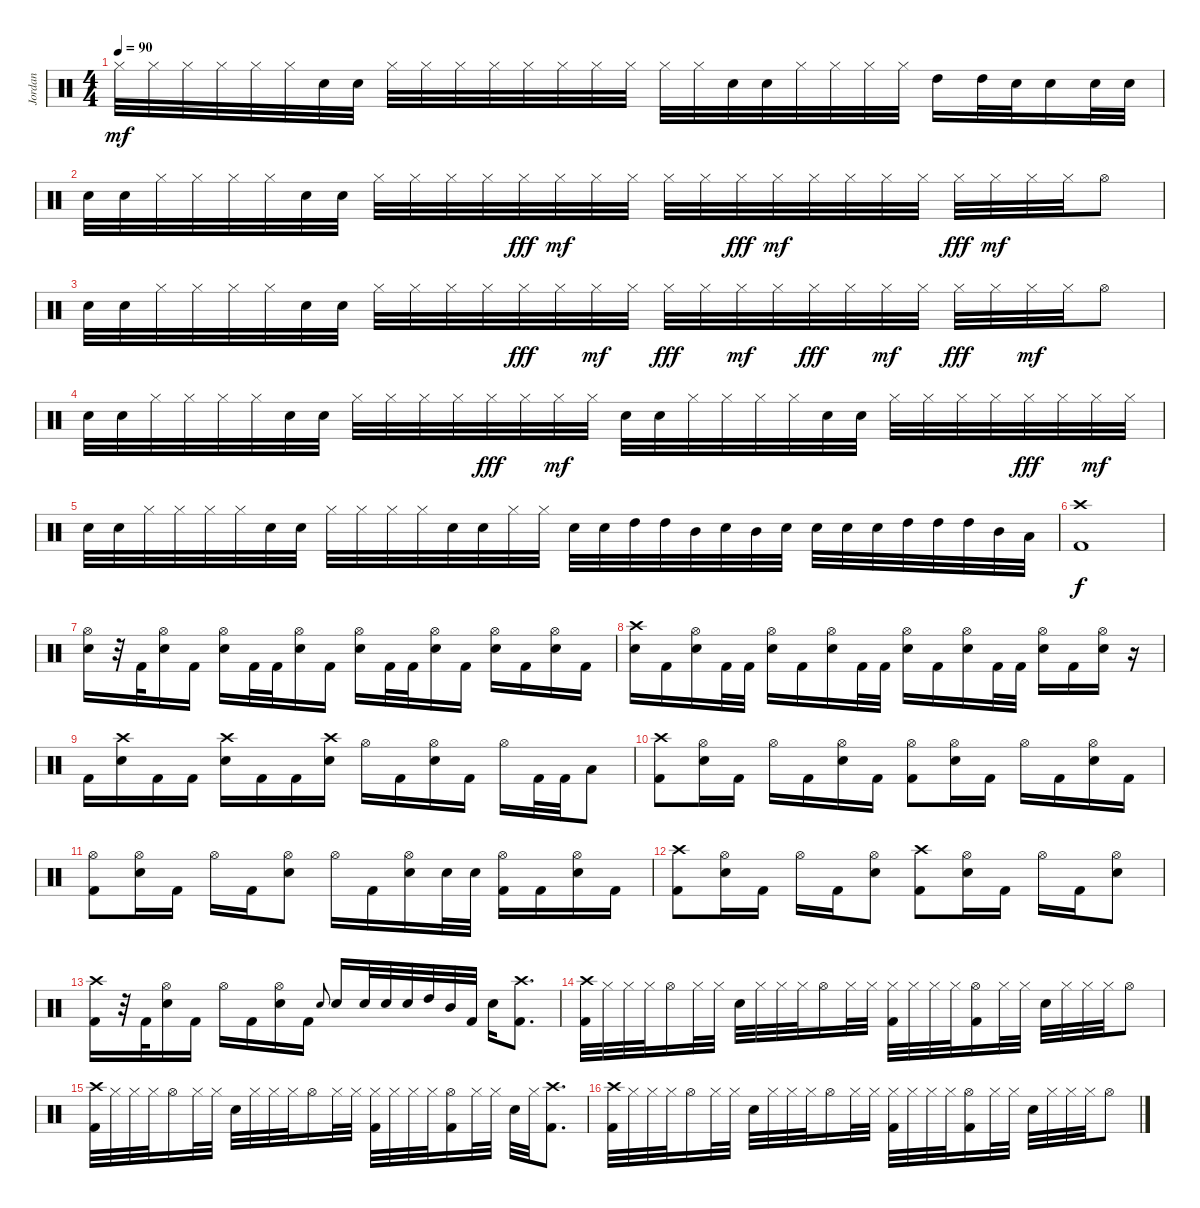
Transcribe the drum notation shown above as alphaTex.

\track ("Jordan" "Jordan") {instrument percussion}
\staff {score}
\articulation defaults
\ts (4 4)
\tempo 90
\clef neutral
\ks c "Hi-Hat (closed)".32{dy mf} "Hi-Hat (closed)".32 "Hi-Hat (closed)".32 "Hi-Hat (closed)".32 "Hi-Hat (closed)".32 "Hi-Hat (closed)".32 "Snare (hit) 2".32 "Snare (hit) 2".32 "Hi-Hat (closed)".32 "Hi-Hat (closed)".32 "Hi-Hat (closed)".32 "Hi-Hat (closed)".32 "Hi-Hat (closed)".32 "Hi-Hat (closed)".32 "Hi-Hat (closed)".32 "Hi-Hat (closed)".32 "Hi-Hat (closed)".32 "Hi-Hat (closed)".32 "Snare (hit) 2".32 "Snare (hit) 2".32 "Hi-Hat (closed)".32 "Hi-Hat (closed)".32 "Hi-Hat (closed)".32 "Hi-Hat (closed)".32 "High Tom (hit)".16 "High Tom (hit)".32 "Snare (hit) 2".32 "Snare (hit) 2".16 "Snare (hit) 2".32 "Snare (hit) 2".32
|
"Snare (hit) 2".32 "Snare (hit) 2".32 "Hi-Hat (closed)".32 "Hi-Hat (closed)".32 "Hi-Hat (closed)".32 "Hi-Hat (closed)".32 "Snare (hit) 2".32 "Snare (hit) 2".32 "Hi-Hat (closed)".32 "Hi-Hat (closed)".32 "Hi-Hat (closed)".32 "Hi-Hat (closed)".32 "Hi-Hat (closed)".32{dy fff} "Hi-Hat (closed)".32{dy mf} "Hi-Hat (closed)".32 "Hi-Hat (closed)".32 "Hi-Hat (closed)".32 "Hi-Hat (closed)".32 "Hi-Hat (closed)".32{dy fff} "Hi-Hat (closed)".32{dy mf} "Hi-Hat (closed)".32 "Hi-Hat (closed)".32 "Hi-Hat (closed)".32 "Hi-Hat (closed)".32 "Hi-Hat (closed)".32{dy fff} "Hi-Hat (closed)".32{dy mf} "Hi-Hat (closed)".32 "Hi-Hat (closed)".32 "Hi-Hat (open)".8 |
"Snare (hit) 2".32 "Snare (hit) 2".32 "Hi-Hat (closed)".32 "Hi-Hat (closed)".32 "Hi-Hat (closed)".32 "Hi-Hat (closed)".32 "Snare (hit) 2".32 "Snare (hit) 2".32 "Hi-Hat (closed)".32 "Hi-Hat (closed)".32 "Hi-Hat (closed)".32 "Hi-Hat (closed)".32 "Hi-Hat (closed)".32{dy fff} "Hi-Hat (closed)".32 "Hi-Hat (closed)".32{dy mf} "Hi-Hat (closed)".32 "Hi-Hat (closed)".32{dy fff} "Hi-Hat (closed)".32 "Hi-Hat (closed)".32{dy mf} "Hi-Hat (closed)".32 "Hi-Hat (closed)".32{dy fff} "Hi-Hat (closed)".32 "Hi-Hat (closed)".32{dy mf} "Hi-Hat (closed)".32 "Hi-Hat (closed)".32{dy fff} "Hi-Hat (closed)".32 "Hi-Hat (closed)".32{dy mf} "Hi-Hat (closed)".32 "Hi-Hat (open)".8 |
"Snare (hit) 2".32 "Snare (hit) 2".32 "Hi-Hat (closed)".32 "Hi-Hat (closed)".32 "Hi-Hat (closed)".32 "Hi-Hat (closed)".32 "Snare (hit) 2".32 "Snare (hit) 2".32 "Hi-Hat (closed)".32 "Hi-Hat (closed)".32 "Hi-Hat (closed)".32 "Hi-Hat (closed)".32 "Hi-Hat (closed)".32{dy fff} "Hi-Hat (closed)".32 "Hi-Hat (closed)".32{dy mf} "Hi-Hat (closed)".32 "Snare (hit) 2".32 "Snare (hit) 2".32 "Hi-Hat (closed)".32 "Hi-Hat (closed)".32 "Hi-Hat (closed)".32 "Hi-Hat (closed)".32 "Snare (hit) 2".32 "Snare (hit) 2".32 "Hi-Hat (closed)".32 "Hi-Hat (closed)".32 "Hi-Hat (closed)".32 "Hi-Hat (closed)".32 "Hi-Hat (closed)".32{dy fff} "Hi-Hat (closed)".32 "Hi-Hat (closed)".32{dy mf} "Hi-Hat (closed)".32 |
"Snare (hit) 2".32 "Snare (hit) 2".32 "Hi-Hat (closed)".32 "Hi-Hat (closed)".32 "Hi-Hat (closed)".32 "Hi-Hat (closed)".32 "Snare (hit) 2".32 "Snare (hit) 2".32 "Hi-Hat (closed)".32 "Hi-Hat (closed)".32 "Hi-Hat (closed)".32 "Hi-Hat (closed)".32 "Snare (hit) 2".32 "Snare (hit) 2".32 "Hi-Hat (closed)".32 "Hi-Hat (closed)".32 "Snare (hit) 2".32 "Snare (hit) 2".32 "High Tom (hit)".32 "High Tom (hit)".32 "Mid Tom (hit)".32 "Snare (hit) 2".32 "Mid Tom (hit)".32 "Snare (hit) 2".32 "Snare (hit) 2".32 "Snare (hit) 2".32 "Snare (hit) 2".32 "High Tom (hit)".32 "High Tom (hit)".32 "High Tom (hit)".32 "Mid Tom (hit)".32 "Low Tom (hit)".32 |
("Crash high (hit)" "Kick (hit) 2").1{dy f} |
("Hi-Hat (open)" "Snare (hit) 2").16 r.32 "Kick (hit) 2".32 ("Hi-Hat (open)" "Snare (hit) 2").16 "Kick (hit) 2".16 ("Hi-Hat (open)" "Snare (hit) 2").16 "Kick (hit) 2".32 "Kick (hit) 2".32 ("Hi-Hat (open)" "Snare (hit) 2").16 "Kick (hit) 2".16 ("Hi-Hat (open)" "Snare (hit) 2").16 "Kick (hit) 2".32 "Kick (hit) 2".32 ("Hi-Hat (open)" "Snare (hit) 2").16 "Kick (hit) 2".16 ("Hi-Hat (open)" "Snare (hit) 2").16 "Kick (hit) 2".16 ("Hi-Hat (open)" "Snare (hit) 2").16 "Kick (hit) 2".16 |
("Crash high (hit)" "Snare (hit) 2").16 "Kick (hit) 2".16 ("Hi-Hat (open)" "Snare (hit) 2").16 "Kick (hit) 2".32 "Kick (hit) 2".32 ("Hi-Hat (open)" "Snare (hit) 2").16 "Kick (hit) 2".16 ("Hi-Hat (open)" "Snare (hit) 2").16 "Kick (hit) 2".32 "Kick (hit) 2".32 ("Hi-Hat (open)" "Snare (hit) 2").16 "Kick (hit) 2".16 ("Hi-Hat (open)" "Snare (hit) 2").16 "Kick (hit) 2".32 "Kick (hit) 2".32 ("Hi-Hat (open)" "Snare (hit) 2").16 "Kick (hit) 2".16 ("Hi-Hat (open)" "Snare (hit) 2").16 r.16 |
"Kick (hit) 2".16 ("Crash high (hit)" "Snare (hit) 2").16 "Kick (hit) 2".16 "Kick (hit) 2".16 ("Crash high (hit)" "Snare (hit) 2").16 "Kick (hit) 2".16 "Kick (hit) 2".16 ("Crash high (hit)" "Snare (hit) 2").16 "Hi-Hat (open)".16 "Kick (hit) 2".16 ("Hi-Hat (open)" "Snare (hit) 2").16 "Kick (hit) 2".16 "Hi-Hat (open)".16 "Kick (hit) 2".32 "Kick (hit) 2".32 "Low Tom (hit)".8 |
("Crash high (hit)" "Kick (hit) 2").8 ("Hi-Hat (open)" "Snare (hit) 2").16 "Kick (hit) 2".16 "Hi-Hat (open)".16 "Kick (hit) 2".16 ("Hi-Hat (open)" "Snare (hit) 2").16 "Kick (hit) 2".16 ("Hi-Hat (open)" "Kick (hit) 2").8 ("Hi-Hat (open)" "Snare (hit) 2").16 "Kick (hit) 2".16 "Hi-Hat (open)".16 "Kick (hit) 2".16 ("Hi-Hat (open)" "Snare (hit) 2").16 "Kick (hit) 2".16 |
("Hi-Hat (open)" "Kick (hit) 2").8 ("Hi-Hat (open)" "Snare (hit) 2").16 "Kick (hit) 2".16 "Hi-Hat (open)".16 "Kick (hit) 2".16 ("Hi-Hat (open)" "Snare (hit) 2").8 "Hi-Hat (open)".16 "Kick (hit) 2".16 ("Hi-Hat (open)" "Snare (hit) 2").16 "Snare (hit) 2".32 "Snare (hit) 2".32 ("Hi-Hat (open)" "Kick (hit) 2").16 "Kick (hit) 2".16 ("Hi-Hat (open)" "Snare (hit) 2").16 "Kick (hit) 2".16 |
("Crash high (hit)" "Kick (hit) 2").8 ("Hi-Hat (open)" "Snare (hit) 2").16 "Kick (hit) 2".16 "Hi-Hat (open)".16 "Kick (hit) 2".16 ("Hi-Hat (open)" "Snare (hit) 2").8 ("Crash high (hit)" "Kick (hit) 2").8 ("Hi-Hat (open)" "Snare (hit) 2").16 "Kick (hit) 2".16 "Hi-Hat (open)".16 "Kick (hit) 2".16 ("Hi-Hat (open)" "Snare (hit) 2").8 |
("Crash high (hit)" "Kick (hit) 2").16 r.32 "Kick (hit) 2".32 ("Hi-Hat (open)" "Snare (hit) 2").16 "Kick (hit) 2".16 "Hi-Hat (open)".16 "Kick (hit) 2".16 ("Hi-Hat (open)" "Snare (hit) 2").16 "Kick (hit) 2".16 "Snare (hit) 2".8{gr onbeat} "Snare (hit) 2".16 "Snare (hit) 2".32 "Snare (hit) 2".32 "Snare (hit) 2".32 "High Tom (hit)".32 "Mid Tom (hit)".32 "Kick (hit) 2".32 "Snare (hit) 2".16 ("Crash high (hit)" "Kick (hit) 2").8{d} |
("Crash high (hit)" "Kick (hit) 2").32 "Hi-Hat (closed)".32 "Hi-Hat (closed)".32 "Hi-Hat (closed)".32 "Hi-Hat (open)".16 "Hi-Hat (closed)".32 "Hi-Hat (closed)".32 "Snare (hit) 2".32 "Hi-Hat (closed)".32 "Hi-Hat (closed)".32 "Hi-Hat (closed)".32 "Hi-Hat (open)".16 "Hi-Hat (closed)".32 "Hi-Hat (closed)".32 ("Hi-Hat (closed)" "Kick (hit) 2").32 "Hi-Hat (closed)".32 "Hi-Hat (closed)".32 "Hi-Hat (closed)".32 ("Hi-Hat (open)" "Kick (hit) 2").16 "Hi-Hat (closed)".32 "Hi-Hat (closed)".32 "Snare (hit) 2".32 "Hi-Hat (closed)".32 "Hi-Hat (closed)".32 "Hi-Hat (closed)".32 "Hi-Hat (open)".8 |
("Crash high (hit)" "Kick (hit) 2").32 "Hi-Hat (closed)".32 "Hi-Hat (closed)".32 "Hi-Hat (closed)".32 "Hi-Hat (open)".16 "Hi-Hat (closed)".32 "Hi-Hat (closed)".32 "Snare (hit) 2".32 "Hi-Hat (closed)".32 "Hi-Hat (closed)".32 "Hi-Hat (closed)".32 "Hi-Hat (open)".16 "Hi-Hat (closed)".32 "Hi-Hat (closed)".32 ("Hi-Hat (closed)" "Kick (hit) 2").32 "Hi-Hat (closed)".32 "Hi-Hat (closed)".32 "Hi-Hat (closed)".32 ("Hi-Hat (open)" "Kick (hit) 2").16 "Hi-Hat (closed)".32 "Hi-Hat (closed)".32 "Snare (hit) 2".32 "Hi-Hat (closed)".32 ("Crash high (hit)" "Kick (hit) 2").8{d} |
("Crash high (hit)" "Kick (hit) 2").32 "Hi-Hat (closed)".32 "Hi-Hat (closed)".32 "Hi-Hat (closed)".32 "Hi-Hat (open)".16 "Hi-Hat (closed)".32 "Hi-Hat (closed)".32 "Snare (hit) 2".32 "Hi-Hat (closed)".32 "Hi-Hat (closed)".32 "Hi-Hat (closed)".32 "Hi-Hat (open)".16 "Hi-Hat (closed)".32 "Hi-Hat (closed)".32 ("Hi-Hat (closed)" "Kick (hit) 2").32 "Hi-Hat (closed)".32 "Hi-Hat (closed)".32 "Hi-Hat (closed)".32 ("Hi-Hat (open)" "Kick (hit) 2").16 "Hi-Hat (closed)".32 "Hi-Hat (closed)".32 "Snare (hit) 2".32 "Hi-Hat (closed)".32 "Hi-Hat (closed)".32 "Hi-Hat (closed)".32 "Hi-Hat (open)".8
